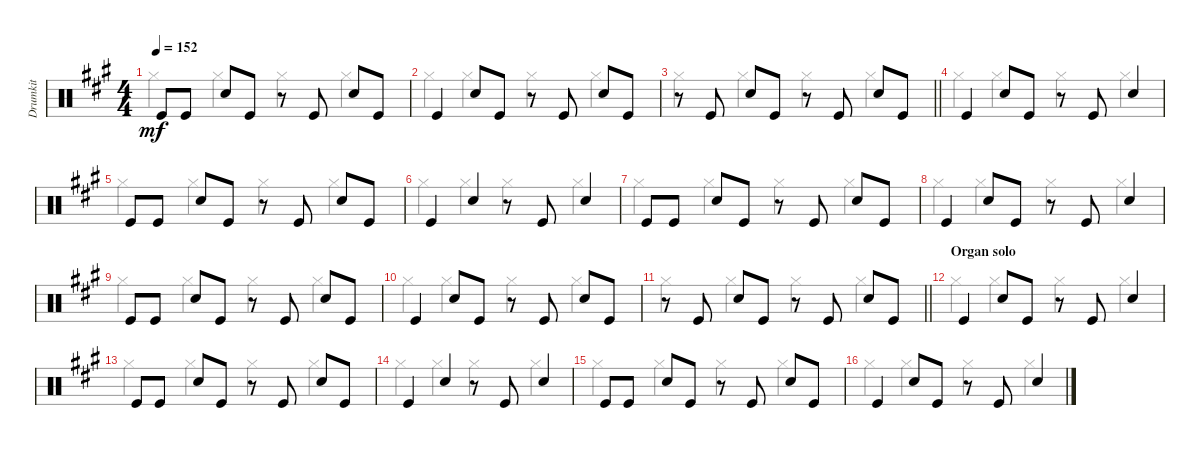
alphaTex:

\track ("Drumkit" "Drumkit") {instrument percussion}
\staff {score}
\articulation defaults
\voice
\ts (4 4)
\tempo 152
\clef neutral
\ks a "Kick (hit)".8{dy mf} "Kick (hit)".8 "Snare (hit) 2".8 "Kick (hit)".8
r.8 "Kick (hit)".8 "Snare (hit) 2".8 "Kick (hit)".8 |
"Kick (hit)".4 "Snare (hit) 2".8 "Kick (hit)".8 r.8 "Kick (hit)".8 "Snare (hit) 2".8 "Kick (hit)".8 |
\barLineRight lightlight
r.8 "Kick (hit)".8 "Snare (hit) 2".8 "Kick (hit)".8 r.8 "Kick (hit)".8 "Snare (hit) 2".8 "Kick (hit)".8 |
"Kick (hit)".4 "Snare (hit) 2".8 "Kick (hit)".8 r.8 "Kick (hit)".8 "Snare (hit) 2".4 |
"Kick (hit)".8 "Kick (hit)".8 "Snare (hit) 2".8 "Kick (hit)".8 r.8 "Kick (hit)".8 "Snare (hit) 2".8 "Kick (hit)".8 |
"Kick (hit)".4 "Snare (hit) 2".4 r.8 "Kick (hit)".8 "Snare (hit) 2".4 |
"Kick (hit)".8 "Kick (hit)".8 "Snare (hit) 2".8 "Kick (hit)".8 r.8 "Kick (hit)".8 "Snare (hit) 2".8 "Kick (hit)".8 |
"Kick (hit)".4 "Snare (hit) 2".8 "Kick (hit)".8 r.8 "Kick (hit)".8 "Snare (hit) 2".4 |
"Kick (hit)".8 "Kick (hit)".8 "Snare (hit) 2".8 "Kick (hit)".8 r.8 "Kick (hit)".8 "Snare (hit) 2".8 "Kick (hit)".8 |
"Kick (hit)".4 "Snare (hit) 2".8 "Kick (hit)".8 r.8 "Kick (hit)".8 "Snare (hit) 2".8 "Kick (hit)".8 |
\barLineRight lightlight
r.8 "Kick (hit)".8 "Snare (hit) 2".8 "Kick (hit)".8 r.8 "Kick (hit)".8 "Snare (hit) 2".8 "Kick (hit)".8 |
\section ("" "Organ solo")
"Kick (hit)".4 "Snare (hit) 2".8 "Kick (hit)".8 r.8 "Kick (hit)".8 "Snare (hit) 2".4 |
"Kick (hit)".8 "Kick (hit)".8 "Snare (hit) 2".8 "Kick (hit)".8 r.8 "Kick (hit)".8 "Snare (hit) 2".8 "Kick (hit)".8 |
"Kick (hit)".4 "Snare (hit) 2".4 r.8 "Kick (hit)".8 "Snare (hit) 2".4 |
"Kick (hit)".8 "Kick (hit)".8 "Snare (hit) 2".8 "Kick (hit)".8 r.8 "Kick (hit)".8 "Snare (hit) 2".8 "Kick (hit)".8 |
"Kick (hit)".4 "Snare (hit) 2".8 "Kick (hit)".8 r.8 "Kick (hit)".8 "Snare (hit) 2".4
\voice
\clef neutral
\ottava regular
\simile none
\ks a "Hi-Hat (closed)".4{dy mf} "Hi-Hat (closed)".4 "Hi-Hat (closed)".4 "Hi-Hat (closed)".4
|
"Hi-Hat (closed)".4 "Hi-Hat (closed)".4 "Hi-Hat (closed)".4 "Hi-Hat (closed)".4 |
\barLineRight lightlight "Hi-Hat (closed)".4 "Hi-Hat (closed)".4 "Hi-Hat (closed)".4 "Hi-Hat (closed)".4
|
"Hi-Hat (closed)".4 "Hi-Hat (closed)".4 "Hi-Hat (closed)".4 "Hi-Hat (closed)".4 |
"Hi-Hat (closed)".4 "Hi-Hat (closed)".4 "Hi-Hat (closed)".4 "Hi-Hat (closed)".4 |
"Hi-Hat (closed)".4 "Hi-Hat (closed)".4 "Hi-Hat (closed)".4 "Hi-Hat (closed)".4 |
"Hi-Hat (closed)".4 "Hi-Hat (closed)".4 "Hi-Hat (closed)".4 "Hi-Hat (closed)".4 |
"Hi-Hat (closed)".4 "Hi-Hat (closed)".4 "Hi-Hat (closed)".4 "Hi-Hat (closed)".4 |
"Hi-Hat (closed)".4 "Hi-Hat (closed)".4 "Hi-Hat (closed)".4 "Hi-Hat (closed)".4 |
"Hi-Hat (closed)".4 "Hi-Hat (closed)".4 "Hi-Hat (closed)".4 "Hi-Hat (closed)".4 |
\barLineRight lightlight "Hi-Hat (closed)".4 "Hi-Hat (closed)".4 "Hi-Hat (closed)".4 "Hi-Hat (closed)".4
|
"Hi-Hat (closed)".4 "Hi-Hat (closed)".4 "Hi-Hat (closed)".4 "Hi-Hat (closed)".4 |
"Hi-Hat (closed)".4 "Hi-Hat (closed)".4 "Hi-Hat (closed)".4 "Hi-Hat (closed)".4 |
"Hi-Hat (closed)".4 "Hi-Hat (closed)".4 "Hi-Hat (closed)".4 "Hi-Hat (closed)".4 |
"Hi-Hat (closed)".4 "Hi-Hat (closed)".4 "Hi-Hat (closed)".4 "Hi-Hat (closed)".4 |
"Hi-Hat (closed)".4 "Hi-Hat (closed)".4 "Hi-Hat (closed)".4 "Hi-Hat (closed)".4
